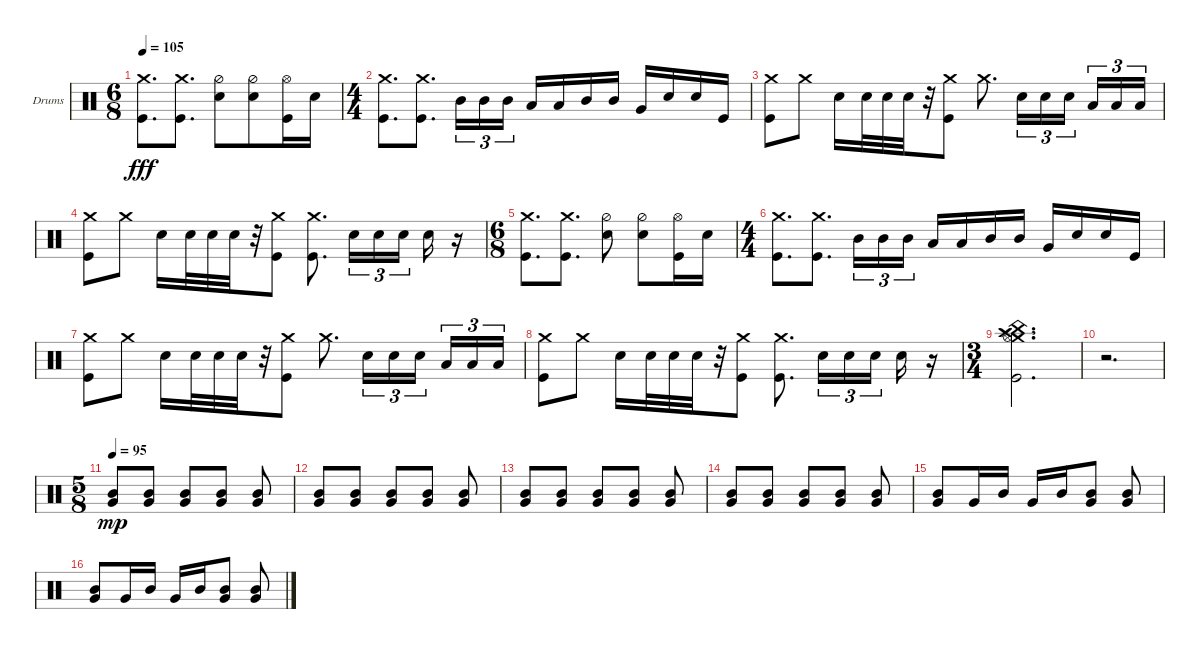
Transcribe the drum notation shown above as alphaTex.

\bracketExtendMode groupsimilarinstruments
\firstSystemTrackNameOrientation horizontal
\otherSystemsTrackNameOrientation horizontal
\track ("Andrew Forsman" "Drums") {instrument percussion}
\staff {score}
\articulation defaults
\ts (6 8)
\tempo 105
\clef neutral
\scale
0.262911
\ks c
("Kick (hit)" "Crash medium (hit)").8{d dy fff} ("Crash medium (hit)" "Kick (hit)").8{d} ("Snare (hit) 2" "Hi-Hat (half)").8 ("Snare (hit) 2" "Hi-Hat (half)").8 ("Hi-Hat (open)" "Kick (hit)").16 "Snare (hit) 2".16 |
\ts (4 4)
\beaming (8 2 2 2 2)
\scale
0.474178 ("Kick (hit)" "Crash medium (hit)").8{d} ("Crash medium (hit)" "Kick (hit)").8{d} "Mid Tom (hit)".16{tu (3 2)} "Mid Tom (hit)".16{tu (3 2)} "Mid Tom (hit)".16{tu (3 2)} "Low Tom (hit)".16 "Low Tom (hit)".16 "Mid Tom (hit)".16 "Mid Tom (hit)".16 "Very Low Tom (hit)".16 "Snare (hit) 2".16 "Snare (hit) 2".16 "Kick (hit)".16 |
\scale
0.262911 ("Kick (hit)" "Crash medium (hit)").8 "Crash medium (hit)".8 "Snare (hit) 2".16 "Snare (hit) 2".32 "Snare (hit) 2".32 "Snare (hit) 2".32 r.32 ("Kick (hit)" "Crash medium (hit)").8 "Crash medium (hit)".8{d} "Snare (hit) 2".16{tu (3 2)} "Snare (hit) 2".16{tu (3 2)} "Snare (hit) 2".16{tu (3 2)} "Low Tom (hit)".16{tu (3 2)} "Low Tom (hit)".16{tu (3 2)} "Low Tom (hit)".16{tu (3 2)} |
\scale
0.217054 ("Kick (hit)" "Crash medium (hit)").8 "Crash medium (hit)".8 "Snare (hit) 2".16 "Snare (hit) 2".32 "Snare (hit) 2".32 "Snare (hit) 2".32 r.32 ("Kick (hit)" "Crash medium (hit)").8 ("Kick (hit)" "Crash medium (hit)").8{d} "Snare (hit) 2".16{tu (3 2)} "Snare (hit) 2".16{tu (3 2)} "Snare (hit) 2".16{tu (3 2)} "Snare (hit) 2".16 r.16 |
\ts (6 8)
\beaming (8 2 2 2 2)
\scale
0.391473 ("Kick (hit)" "Crash medium (hit)").8{d} ("Crash medium (hit)" "Kick (hit)").8{d} ("Snare (hit) 2" "Hi-Hat (half)").8 ("Snare (hit) 2" "Hi-Hat (half)").8 ("Hi-Hat (open)" "Kick (hit)").16 "Snare (hit) 2".16 |
\ts (4 4)
\scale
0.391473 ("Kick (hit)" "Crash medium (hit)").8{d} ("Crash medium (hit)" "Kick (hit)").8{d} "Mid Tom (hit)".16{tu (3 2)} "Mid Tom (hit)".16{tu (3 2)} "Mid Tom (hit)".16{tu (3 2)} "Low Tom (hit)".16 "Low Tom (hit)".16 "Mid Tom (hit)".16 "Mid Tom (hit)".16 "Very Low Tom (hit)".16 "Snare (hit) 2".16 "Snare (hit) 2".16 "Kick (hit)".16 |
\scale
0.262911 ("Kick (hit)" "Crash medium (hit)").8 "Crash medium (hit)".8 "Snare (hit) 2".16 "Snare (hit) 2".32 "Snare (hit) 2".32 "Snare (hit) 2".32 r.32 ("Kick (hit)" "Crash medium (hit)").8 "Crash medium (hit)".8{d} "Snare (hit) 2".16{tu (3 2)} "Snare (hit) 2".16{tu (3 2)} "Snare (hit) 2".16{tu (3 2)} "Low Tom (hit)".16{tu (3 2)} "Low Tom (hit)".16{tu (3 2)} "Low Tom (hit)".16{tu (3 2)} |
\scale
0.262911 ("Kick (hit)" "Crash medium (hit)").8 "Crash medium (hit)".8 "Snare (hit) 2".16 "Snare (hit) 2".32 "Snare (hit) 2".32 "Snare (hit) 2".32 r.32 ("Kick (hit)" "Crash medium (hit)").8 ("Kick (hit)" "Crash medium (hit)").8{d} "Snare (hit) 2".16{tu (3 2)} "Snare (hit) 2".16{tu (3 2)} "Snare (hit) 2".16{tu (3 2)} "Snare (hit) 2".16 r.16 |
\ts (3 4)
\beaming (8 2 2 2)
\scale
0.474178 ("Crash medium (hit)" "Crash high (hit)" "Kick (hit)" "China (hit)" "Splash (hit)" "Hi-Hat (open)").2{d} |
\scale
0.333333 r.2{d} |
\ts (5 8)
\tempo (95 0.00625)
("Very Low Tom (hit)" "Mid Tom (hit)").8{dy mp} ("Very Low Tom (hit)" "Mid Tom (hit)").8 ("Very Low Tom (hit)" "Mid Tom (hit)").8 ("Mid Tom (hit)" "Very Low Tom (hit)").8 ("Mid Tom (hit)" "Very Low Tom (hit)").8 |
("Very Low Tom (hit)" "Mid Tom (hit)").8 ("Very Low Tom (hit)" "Mid Tom (hit)").8 ("Very Low Tom (hit)" "Mid Tom (hit)").8 ("Mid Tom (hit)" "Very Low Tom (hit)").8 ("Mid Tom (hit)" "Very Low Tom (hit)").8 |
\scale
0.333333 ("Very Low Tom (hit)" "Mid Tom (hit)").8 ("Very Low Tom (hit)" "Mid Tom (hit)").8 ("Very Low Tom (hit)" "Mid Tom (hit)").8 ("Mid Tom (hit)" "Very Low Tom (hit)").8 ("Mid Tom (hit)" "Very Low Tom (hit)").8 |
\scale
0.333333 ("Very Low Tom (hit)" "Mid Tom (hit)").8 ("Very Low Tom (hit)" "Mid Tom (hit)").8 ("Very Low Tom (hit)" "Mid Tom (hit)").8 ("Mid Tom (hit)" "Very Low Tom (hit)").8 ("Mid Tom (hit)" "Very Low Tom (hit)").8 |
\scale
0.474178 ("Mid Tom (hit)" "Very Low Tom (hit)").8 "Very Low Tom (hit)".16 "Mid Tom (hit)".16 "Very Low Tom (hit)".16 "Mid Tom (hit)".16 ("Mid Tom (hit)" "Very Low Tom (hit)").8 ("Very Low Tom (hit)" "Mid Tom (hit)").8 |
\scale
0.262911 ("Mid Tom (hit)" "Very Low Tom (hit)").8 "Very Low Tom (hit)".16 "Mid Tom (hit)".16 "Very Low Tom (hit)".16 "Mid Tom (hit)".16 ("Mid Tom (hit)" "Very Low Tom (hit)").8 ("Very Low Tom (hit)" "Mid Tom (hit)").8
